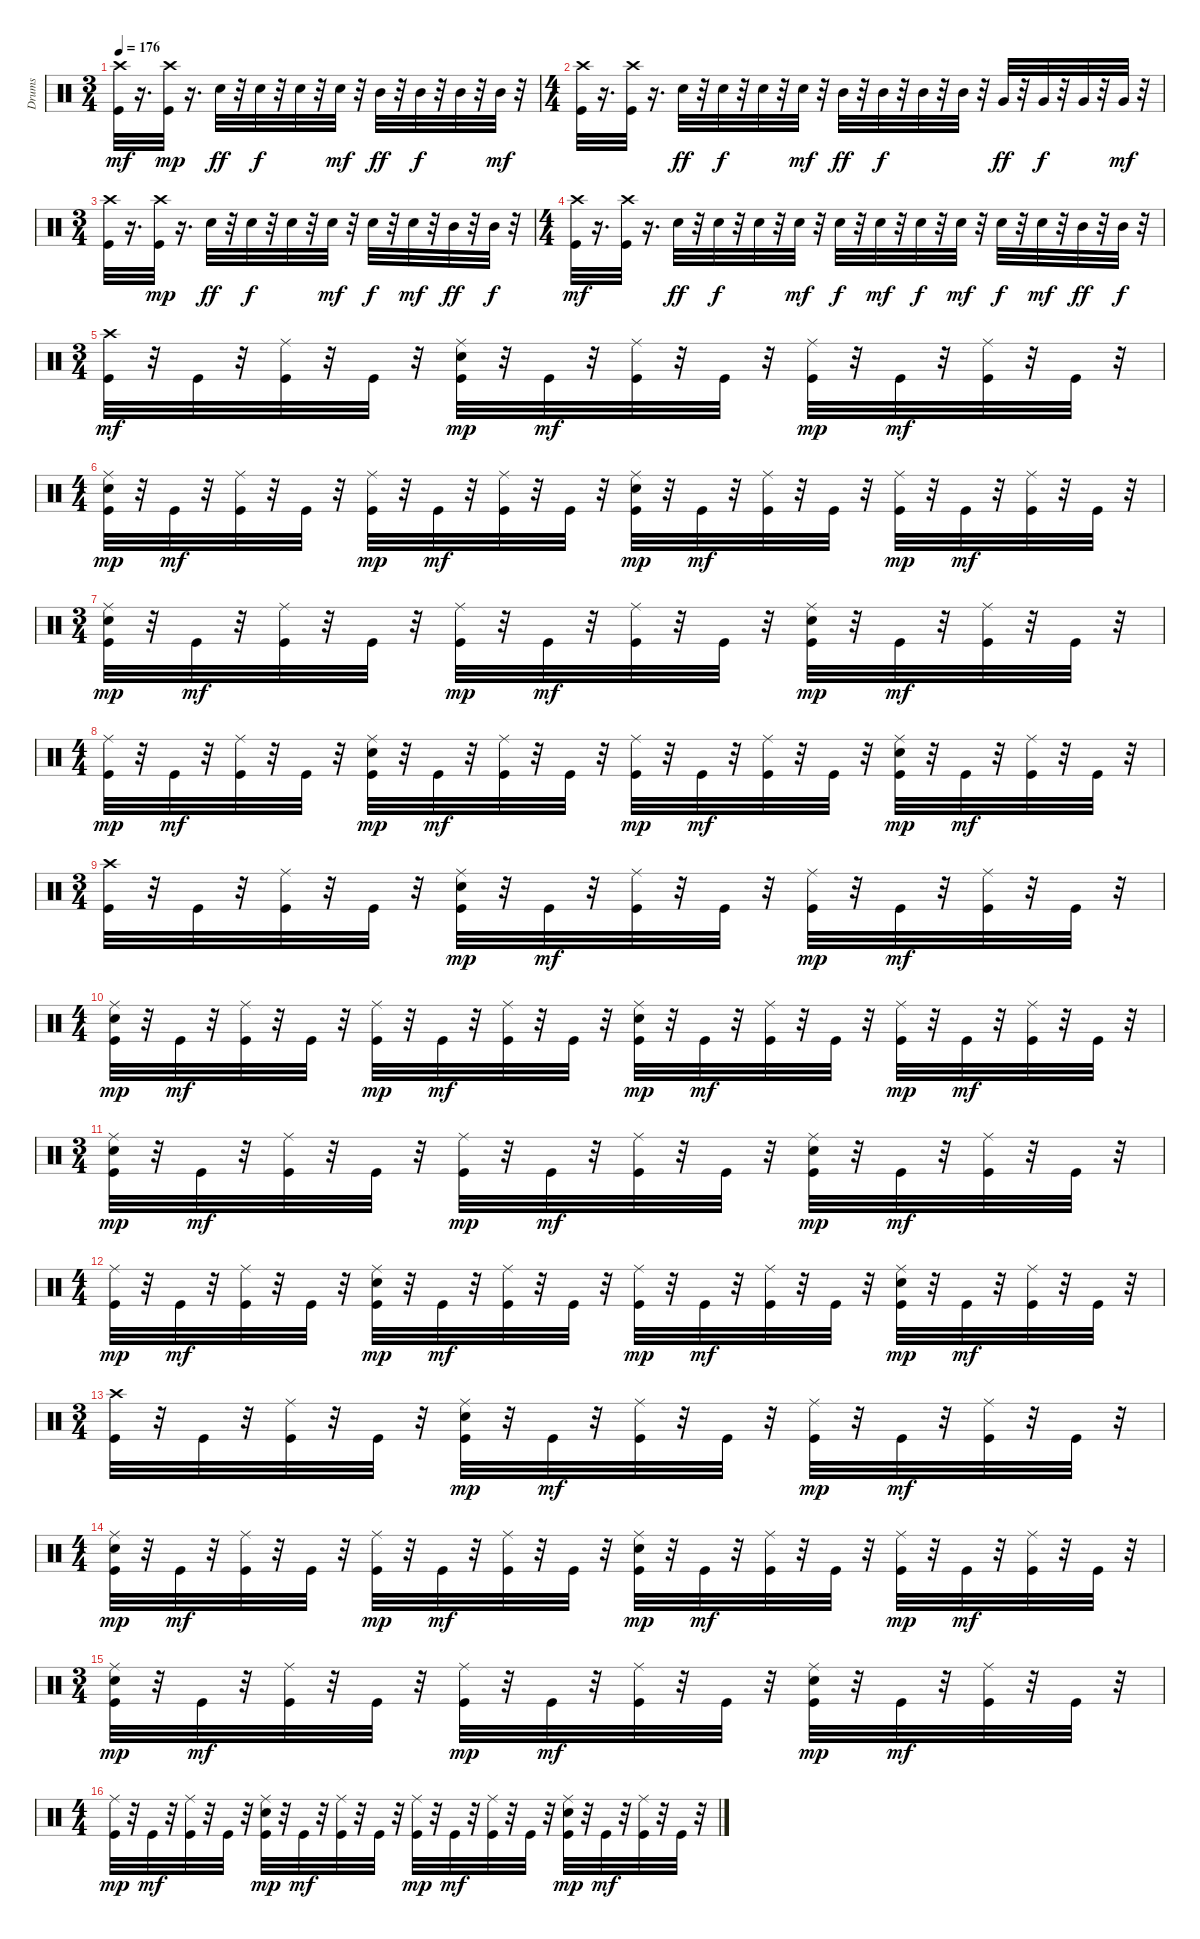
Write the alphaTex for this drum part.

\track ("Drums" "Drums") {instrument percussion}
\staff {score}
\articulation defaults
\ts (3 4)
\tempo 176
\clef neutral
\ks c
("Kick (hit)" "Crash high (hit)").32{dy mf} r.16{d} ("Kick (hit)" "Crash high (hit)").32{dy mp} r.16{d} "Snare (hit) 2".32{dy ff} r.32 "Snare (hit) 2".32{dy f} r.32 "Snare (hit) 2".32 r.32 "Snare (hit) 2".32{dy mf} r.32 "Mid Tom (hit)".32{dy ff} r.32 "Mid Tom (hit)".32{dy f} r.32 "Mid Tom (hit)".32 r.32 "Mid Tom (hit)".32{dy mf} r.32 |
\ts (4 4)
("Kick (hit)" "Crash high (hit)").32 r.16{d} ("Kick (hit)" "Crash high (hit)").32 r.16{d} "Snare (hit) 2".32{dy ff} r.32 "Snare (hit) 2".32{dy f} r.32 "Snare (hit) 2".32 r.32 "Snare (hit) 2".32{dy mf} r.32 "Mid Tom (hit)".32{dy ff} r.32 "Mid Tom (hit)".32{dy f} r.32 "Mid Tom (hit)".32 r.32 "Mid Tom (hit)".32 r.32 "Very Low Tom (hit)".32{dy ff} r.32 "Very Low Tom (hit)".32{dy f} r.32 "Very Low Tom (hit)".32 r.32 "Very Low Tom (hit)".32{dy mf} r.32 |
\ts (3 4)
("Kick (hit)" "Crash high (hit)").32 r.16{d} ("Kick (hit)" "Crash high (hit)").32{dy mp} r.16{d} "Snare (hit) 2".32{dy ff} r.32 "Snare (hit) 2".32{dy f} r.32 "Snare (hit) 2".32 r.32 "Snare (hit) 2".32{dy mf} r.32 "Snare (hit) 2".32{dy f} r.32 "Snare (hit) 2".32{dy mf} r.32 "Mid Tom (hit)".32{dy ff} r.32 "Mid Tom (hit)".32{dy f} r.32 |
\ts (4 4)
("Kick (hit)" "Crash high (hit)").32{dy mf} r.16{d} ("Kick (hit)" "Crash high (hit)").32 r.16{d} "Snare (hit) 2".32{dy ff} r.32 "Snare (hit) 2".32{dy f} r.32 "Snare (hit) 2".32 r.32 "Snare (hit) 2".32{dy mf} r.32 "Snare (hit) 2".32{dy f} r.32 "Snare (hit) 2".32{dy mf} r.32 "Snare (hit) 2".32{dy f} r.32 "Snare (hit) 2".32{dy mf} r.32 "Snare (hit) 2".32{dy f} r.32 "Snare (hit) 2".32{dy mf} r.32 "Mid Tom (hit)".32{dy ff} r.32 "Mid Tom (hit)".32{dy f} r.32 |
\ts (3 4)
("Kick (hit)" "Crash high (hit)").32{dy mf} r.32 "Kick (hit)".32 r.32 ("Kick (hit)" "Ride (middle)").32 r.32 "Kick (hit)".32 r.32 ("Kick (hit)" "Snare (hit) 2" "Ride (middle)").32{dy mp} r.32 "Kick (hit)".32{dy mf} r.32 ("Kick (hit)" "Ride (middle)").32 r.32 "Kick (hit)".32 r.32 ("Kick (hit)" "Ride (middle)").32{dy mp} r.32 "Kick (hit)".32{dy mf} r.32 ("Kick (hit)" "Ride (middle)").32 r.32 "Kick (hit)".32 r.32 |
\ts (4 4)
("Kick (hit)" "Snare (hit) 2" "Ride (middle)").32{dy mp} r.32 "Kick (hit)".32{dy mf} r.32 ("Kick (hit)" "Ride (middle)").32 r.32 "Kick (hit)".32 r.32 ("Kick (hit)" "Ride (middle)").32{dy mp} r.32 "Kick (hit)".32{dy mf} r.32 ("Kick (hit)" "Ride (middle)").32 r.32 "Kick (hit)".32 r.32 ("Kick (hit)" "Snare (hit) 2" "Ride (middle)").32{dy mp} r.32 "Kick (hit)".32{dy mf} r.32 ("Kick (hit)" "Ride (middle)").32 r.32 "Kick (hit)".32 r.32 ("Kick (hit)" "Ride (middle)").32{dy mp} r.32 "Kick (hit)".32{dy mf} r.32 ("Kick (hit)" "Ride (middle)").32 r.32 "Kick (hit)".32 r.32 |
\ts (3 4)
("Kick (hit)" "Snare (hit) 2" "Ride (middle)").32{dy mp} r.32 "Kick (hit)".32{dy mf} r.32 ("Kick (hit)" "Ride (middle)").32 r.32 "Kick (hit)".32 r.32 ("Kick (hit)" "Ride (middle)").32{dy mp} r.32 "Kick (hit)".32{dy mf} r.32 ("Kick (hit)" "Ride (middle)").32 r.32 "Kick (hit)".32 r.32 ("Kick (hit)" "Snare (hit) 2" "Ride (middle)").32{dy mp} r.32 "Kick (hit)".32{dy mf} r.32 ("Kick (hit)" "Ride (middle)").32 r.32 "Kick (hit)".32 r.32 |
\ts (4 4)
("Kick (hit)" "Ride (middle)").32{dy mp} r.32 "Kick (hit)".32{dy mf} r.32 ("Kick (hit)" "Ride (middle)").32 r.32 "Kick (hit)".32 r.32 ("Kick (hit)" "Snare (hit) 2" "Ride (middle)").32{dy mp} r.32 "Kick (hit)".32{dy mf} r.32 ("Kick (hit)" "Ride (middle)").32 r.32 "Kick (hit)".32 r.32 ("Kick (hit)" "Ride (middle)").32{dy mp} r.32 "Kick (hit)".32{dy mf} r.32 ("Kick (hit)" "Ride (middle)").32 r.32 "Kick (hit)".32 r.32 ("Kick (hit)" "Snare (hit) 2" "Ride (middle)").32{dy mp} r.32 "Kick (hit)".32{dy mf} r.32 ("Kick (hit)" "Ride (middle)").32 r.32 "Kick (hit)".32 r.32 |
\ts (3 4)
("Kick (hit)" "Crash high (hit)").32 r.32 "Kick (hit)".32 r.32 ("Kick (hit)" "Ride (middle)").32 r.32 "Kick (hit)".32 r.32 ("Kick (hit)" "Snare (hit) 2" "Ride (middle)").32{dy mp} r.32 "Kick (hit)".32{dy mf} r.32 ("Kick (hit)" "Ride (middle)").32 r.32 "Kick (hit)".32 r.32 ("Kick (hit)" "Ride (middle)").32{dy mp} r.32 "Kick (hit)".32{dy mf} r.32 ("Kick (hit)" "Ride (middle)").32 r.32 "Kick (hit)".32 r.32 |
\ts (4 4)
("Kick (hit)" "Snare (hit) 2" "Ride (middle)").32{dy mp} r.32 "Kick (hit)".32{dy mf} r.32 ("Kick (hit)" "Ride (middle)").32 r.32 "Kick (hit)".32 r.32 ("Kick (hit)" "Ride (middle)").32{dy mp} r.32 "Kick (hit)".32{dy mf} r.32 ("Kick (hit)" "Ride (middle)").32 r.32 "Kick (hit)".32 r.32 ("Kick (hit)" "Snare (hit) 2" "Ride (middle)").32{dy mp} r.32 "Kick (hit)".32{dy mf} r.32 ("Kick (hit)" "Ride (middle)").32 r.32 "Kick (hit)".32 r.32 ("Kick (hit)" "Ride (middle)").32{dy mp} r.32 "Kick (hit)".32{dy mf} r.32 ("Kick (hit)" "Ride (middle)").32 r.32 "Kick (hit)".32 r.32 |
\ts (3 4)
("Kick (hit)" "Snare (hit) 2" "Ride (middle)").32{dy mp} r.32 "Kick (hit)".32{dy mf} r.32 ("Kick (hit)" "Ride (middle)").32 r.32 "Kick (hit)".32 r.32 ("Kick (hit)" "Ride (middle)").32{dy mp} r.32 "Kick (hit)".32{dy mf} r.32 ("Kick (hit)" "Ride (middle)").32 r.32 "Kick (hit)".32 r.32 ("Kick (hit)" "Snare (hit) 2" "Ride (middle)").32{dy mp} r.32 "Kick (hit)".32{dy mf} r.32 ("Kick (hit)" "Ride (middle)").32 r.32 "Kick (hit)".32 r.32 |
\ts (4 4)
("Kick (hit)" "Ride (middle)").32{dy mp} r.32 "Kick (hit)".32{dy mf} r.32 ("Kick (hit)" "Ride (middle)").32 r.32 "Kick (hit)".32 r.32 ("Kick (hit)" "Snare (hit) 2" "Ride (middle)").32{dy mp} r.32 "Kick (hit)".32{dy mf} r.32 ("Kick (hit)" "Ride (middle)").32 r.32 "Kick (hit)".32 r.32 ("Kick (hit)" "Ride (middle)").32{dy mp} r.32 "Kick (hit)".32{dy mf} r.32 ("Kick (hit)" "Ride (middle)").32 r.32 "Kick (hit)".32 r.32 ("Kick (hit)" "Snare (hit) 2" "Ride (middle)").32{dy mp} r.32 "Kick (hit)".32{dy mf} r.32 ("Kick (hit)" "Ride (middle)").32 r.32 "Kick (hit)".32 r.32 |
\ts (3 4)
("Kick (hit)" "Crash high (hit)").32 r.32 "Kick (hit)".32 r.32 ("Kick (hit)" "Ride (middle)").32 r.32 "Kick (hit)".32 r.32 ("Kick (hit)" "Snare (hit) 2" "Ride (middle)").32{dy mp} r.32 "Kick (hit)".32{dy mf} r.32 ("Kick (hit)" "Ride (middle)").32 r.32 "Kick (hit)".32 r.32 ("Kick (hit)" "Ride (middle)").32{dy mp} r.32 "Kick (hit)".32{dy mf} r.32 ("Kick (hit)" "Ride (middle)").32 r.32 "Kick (hit)".32 r.32 |
\ts (4 4)
("Kick (hit)" "Snare (hit) 2" "Ride (middle)").32{dy mp} r.32 "Kick (hit)".32{dy mf} r.32 ("Kick (hit)" "Ride (middle)").32 r.32 "Kick (hit)".32 r.32 ("Kick (hit)" "Ride (middle)").32{dy mp} r.32 "Kick (hit)".32{dy mf} r.32 ("Kick (hit)" "Ride (middle)").32 r.32 "Kick (hit)".32 r.32 ("Kick (hit)" "Snare (hit) 2" "Ride (middle)").32{dy mp} r.32 "Kick (hit)".32{dy mf} r.32 ("Kick (hit)" "Ride (middle)").32 r.32 "Kick (hit)".32 r.32 ("Kick (hit)" "Ride (middle)").32{dy mp} r.32 "Kick (hit)".32{dy mf} r.32 ("Kick (hit)" "Ride (middle)").32 r.32 "Kick (hit)".32 r.32 |
\ts (3 4)
("Kick (hit)" "Snare (hit) 2" "Ride (middle)").32{dy mp} r.32 "Kick (hit)".32{dy mf} r.32 ("Kick (hit)" "Ride (middle)").32 r.32 "Kick (hit)".32 r.32 ("Kick (hit)" "Ride (middle)").32{dy mp} r.32 "Kick (hit)".32{dy mf} r.32 ("Kick (hit)" "Ride (middle)").32 r.32 "Kick (hit)".32 r.32 ("Kick (hit)" "Snare (hit) 2" "Ride (middle)").32{dy mp} r.32 "Kick (hit)".32{dy mf} r.32 ("Kick (hit)" "Ride (middle)").32 r.32 "Kick (hit)".32 r.32 |
\ts (4 4)
("Kick (hit)" "Ride (middle)").32{dy mp} r.32 "Kick (hit)".32{dy mf} r.32 ("Kick (hit)" "Ride (middle)").32 r.32 "Kick (hit)".32 r.32 ("Kick (hit)" "Snare (hit) 2" "Ride (middle)").32{dy mp} r.32 "Kick (hit)".32{dy mf} r.32 ("Kick (hit)" "Ride (middle)").32 r.32 "Kick (hit)".32 r.32 ("Kick (hit)" "Ride (middle)").32{dy mp} r.32 "Kick (hit)".32{dy mf} r.32 ("Kick (hit)" "Ride (middle)").32 r.32 "Kick (hit)".32 r.32 ("Kick (hit)" "Snare (hit) 2" "Ride (middle)").32{dy mp} r.32 "Kick (hit)".32{dy mf} r.32 ("Kick (hit)" "Ride (middle)").32 r.32 "Kick (hit)".32 r.32
